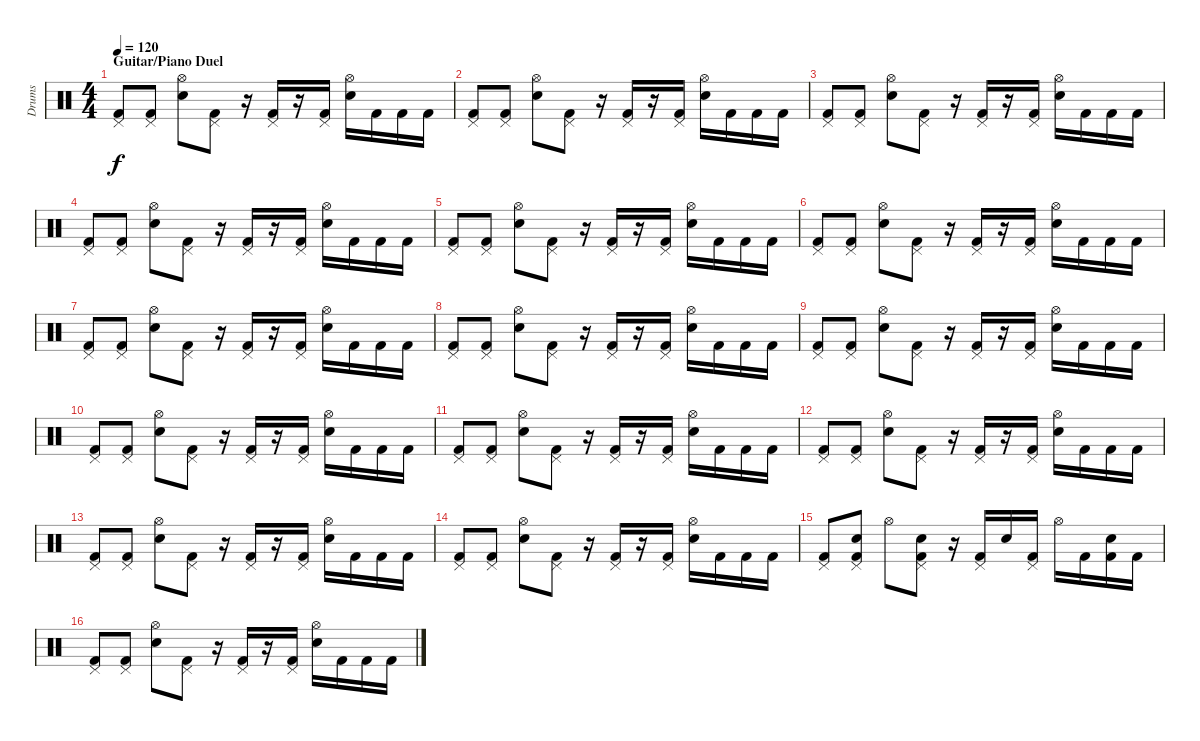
\track ("Drums" "Drums") {instrument percussion}
\staff {score}
\articulation defaults
\ts (4 4)
\section ("" "Guitar/Piano Duel")
\tempo 120
\clef neutral
\ks c
("Pedal Hi-Hat (hit)" "Kick (hit) 2").8{dy f} ("Pedal Hi-Hat (hit)" "Kick (hit) 2").8 ("Hi-Hat (open)" "Electric Snare (hit)").8 ("Pedal Hi-Hat (hit)" "Kick (hit) 2").8 r.16 ("Pedal Hi-Hat (hit)" "Kick (hit) 2").16 r.16 ("Pedal Hi-Hat (hit)" "Kick (hit) 2").16 ("Hi-Hat (open)" "Electric Snare (hit)").16 "Kick (hit) 2".16 "Kick (hit) 2".16 "Kick (hit) 2".16 |
("Pedal Hi-Hat (hit)" "Kick (hit) 2").8 ("Pedal Hi-Hat (hit)" "Kick (hit) 2").8 ("Hi-Hat (open)" "Electric Snare (hit)").8 ("Pedal Hi-Hat (hit)" "Kick (hit) 2").8 r.16 ("Pedal Hi-Hat (hit)" "Kick (hit) 2").16 r.16 ("Pedal Hi-Hat (hit)" "Kick (hit) 2").16 ("Hi-Hat (open)" "Electric Snare (hit)").16 "Kick (hit) 2".16 "Kick (hit) 2".16 "Kick (hit) 2".16 |
("Pedal Hi-Hat (hit)" "Kick (hit) 2").8 ("Pedal Hi-Hat (hit)" "Kick (hit) 2").8 ("Hi-Hat (open)" "Electric Snare (hit)").8 ("Pedal Hi-Hat (hit)" "Kick (hit) 2").8 r.16 ("Pedal Hi-Hat (hit)" "Kick (hit) 2").16 r.16 ("Pedal Hi-Hat (hit)" "Kick (hit) 2").16 ("Hi-Hat (open)" "Electric Snare (hit)").16 "Kick (hit) 2".16 "Kick (hit) 2".16 "Kick (hit) 2".16 |
("Pedal Hi-Hat (hit)" "Kick (hit) 2").8 ("Pedal Hi-Hat (hit)" "Kick (hit) 2").8 ("Hi-Hat (open)" "Electric Snare (hit)").8 ("Pedal Hi-Hat (hit)" "Kick (hit) 2").8 r.16 ("Pedal Hi-Hat (hit)" "Kick (hit) 2").16 r.16 ("Pedal Hi-Hat (hit)" "Kick (hit) 2").16 ("Hi-Hat (open)" "Electric Snare (hit)").16 "Kick (hit) 2".16 "Kick (hit) 2".16 "Kick (hit) 2".16 |
("Pedal Hi-Hat (hit)" "Kick (hit) 2").8 ("Pedal Hi-Hat (hit)" "Kick (hit) 2").8 ("Hi-Hat (open)" "Electric Snare (hit)").8 ("Pedal Hi-Hat (hit)" "Kick (hit) 2").8 r.16 ("Pedal Hi-Hat (hit)" "Kick (hit) 2").16 r.16 ("Pedal Hi-Hat (hit)" "Kick (hit) 2").16 ("Hi-Hat (open)" "Electric Snare (hit)").16 "Kick (hit) 2".16 "Kick (hit) 2".16 "Kick (hit) 2".16 |
("Pedal Hi-Hat (hit)" "Kick (hit) 2").8 ("Pedal Hi-Hat (hit)" "Kick (hit) 2").8 ("Hi-Hat (open)" "Electric Snare (hit)").8 ("Pedal Hi-Hat (hit)" "Kick (hit) 2").8 r.16 ("Pedal Hi-Hat (hit)" "Kick (hit) 2").16 r.16 ("Pedal Hi-Hat (hit)" "Kick (hit) 2").16 ("Hi-Hat (open)" "Electric Snare (hit)").16 "Kick (hit) 2".16 "Kick (hit) 2".16 "Kick (hit) 2".16 |
("Pedal Hi-Hat (hit)" "Kick (hit) 2").8 ("Pedal Hi-Hat (hit)" "Kick (hit) 2").8 ("Hi-Hat (open)" "Electric Snare (hit)").8 ("Pedal Hi-Hat (hit)" "Kick (hit) 2").8 r.16 ("Pedal Hi-Hat (hit)" "Kick (hit) 2").16 r.16 ("Pedal Hi-Hat (hit)" "Kick (hit) 2").16 ("Hi-Hat (open)" "Electric Snare (hit)").16 "Kick (hit) 2".16 "Kick (hit) 2".16 "Kick (hit) 2".16 |
("Pedal Hi-Hat (hit)" "Kick (hit) 2").8 ("Pedal Hi-Hat (hit)" "Kick (hit) 2").8 ("Hi-Hat (open)" "Electric Snare (hit)").8 ("Pedal Hi-Hat (hit)" "Kick (hit) 2").8 r.16 ("Pedal Hi-Hat (hit)" "Kick (hit) 2").16 r.16 ("Pedal Hi-Hat (hit)" "Kick (hit) 2").16 ("Hi-Hat (open)" "Electric Snare (hit)").16 "Kick (hit) 2".16 "Kick (hit) 2".16 "Kick (hit) 2".16 |
("Pedal Hi-Hat (hit)" "Kick (hit) 2").8 ("Pedal Hi-Hat (hit)" "Kick (hit) 2").8 ("Hi-Hat (open)" "Electric Snare (hit)").8 ("Pedal Hi-Hat (hit)" "Kick (hit) 2").8 r.16 ("Pedal Hi-Hat (hit)" "Kick (hit) 2").16 r.16 ("Pedal Hi-Hat (hit)" "Kick (hit) 2").16 ("Hi-Hat (open)" "Electric Snare (hit)").16 "Kick (hit) 2".16 "Kick (hit) 2".16 "Kick (hit) 2".16 |
("Pedal Hi-Hat (hit)" "Kick (hit) 2").8 ("Pedal Hi-Hat (hit)" "Kick (hit) 2").8 ("Hi-Hat (open)" "Electric Snare (hit)").8 ("Pedal Hi-Hat (hit)" "Kick (hit) 2").8 r.16 ("Pedal Hi-Hat (hit)" "Kick (hit) 2").16 r.16 ("Pedal Hi-Hat (hit)" "Kick (hit) 2").16 ("Hi-Hat (open)" "Electric Snare (hit)").16 "Kick (hit) 2".16 "Kick (hit) 2".16 "Kick (hit) 2".16 |
("Pedal Hi-Hat (hit)" "Kick (hit) 2").8 ("Pedal Hi-Hat (hit)" "Kick (hit) 2").8 ("Hi-Hat (open)" "Electric Snare (hit)").8 ("Pedal Hi-Hat (hit)" "Kick (hit) 2").8 r.16 ("Pedal Hi-Hat (hit)" "Kick (hit) 2").16 r.16 ("Pedal Hi-Hat (hit)" "Kick (hit) 2").16 ("Hi-Hat (open)" "Electric Snare (hit)").16 "Kick (hit) 2".16 "Kick (hit) 2".16 "Kick (hit) 2".16 |
("Pedal Hi-Hat (hit)" "Kick (hit) 2").8 ("Pedal Hi-Hat (hit)" "Kick (hit) 2").8 ("Hi-Hat (open)" "Electric Snare (hit)").8 ("Pedal Hi-Hat (hit)" "Kick (hit) 2").8 r.16 ("Pedal Hi-Hat (hit)" "Kick (hit) 2").16 r.16 ("Pedal Hi-Hat (hit)" "Kick (hit) 2").16 ("Hi-Hat (open)" "Electric Snare (hit)").16 "Kick (hit) 2".16 "Kick (hit) 2".16 "Kick (hit) 2".16 |
("Pedal Hi-Hat (hit)" "Kick (hit) 2").8 ("Pedal Hi-Hat (hit)" "Kick (hit) 2").8 ("Hi-Hat (open)" "Electric Snare (hit)").8 ("Pedal Hi-Hat (hit)" "Kick (hit) 2").8 r.16 ("Pedal Hi-Hat (hit)" "Kick (hit) 2").16 r.16 ("Pedal Hi-Hat (hit)" "Kick (hit) 2").16 ("Hi-Hat (open)" "Electric Snare (hit)").16 "Kick (hit) 2".16 "Kick (hit) 2".16 "Kick (hit) 2".16 |
("Pedal Hi-Hat (hit)" "Kick (hit) 2").8 ("Pedal Hi-Hat (hit)" "Kick (hit) 2").8 ("Hi-Hat (open)" "Electric Snare (hit)").8 ("Pedal Hi-Hat (hit)" "Kick (hit) 2").8 r.16 ("Pedal Hi-Hat (hit)" "Kick (hit) 2").16 r.16 ("Pedal Hi-Hat (hit)" "Kick (hit) 2").16 ("Hi-Hat (open)" "Electric Snare (hit)").16 "Kick (hit) 2".16 "Kick (hit) 2".16 "Kick (hit) 2".16 |
("Pedal Hi-Hat (hit)" "Kick (hit) 2").8 ("Pedal Hi-Hat (hit)" "Electric Snare (hit)" "Kick (hit) 2").8 "Hi-Hat (open)".8 ("Pedal Hi-Hat (hit)" "Electric Snare (hit)" "Kick (hit) 2").8 r.16 ("Pedal Hi-Hat (hit)" "Kick (hit) 2").16 "Electric Snare (hit)".16 ("Pedal Hi-Hat (hit)" "Kick (hit) 2").16 "Hi-Hat (open)".16 "Kick (hit) 2".16 ("Electric Snare (hit)" "Kick (hit) 2").16 "Kick (hit) 2".16 |
("Pedal Hi-Hat (hit)" "Kick (hit) 2").8 ("Pedal Hi-Hat (hit)" "Kick (hit) 2").8 ("Hi-Hat (open)" "Electric Snare (hit)").8 ("Pedal Hi-Hat (hit)" "Kick (hit) 2").8 r.16 ("Pedal Hi-Hat (hit)" "Kick (hit) 2").16 r.16 ("Pedal Hi-Hat (hit)" "Kick (hit) 2").16 ("Hi-Hat (open)" "Electric Snare (hit)").16 "Kick (hit) 2".16 "Kick (hit) 2".16 "Kick (hit) 2".16
